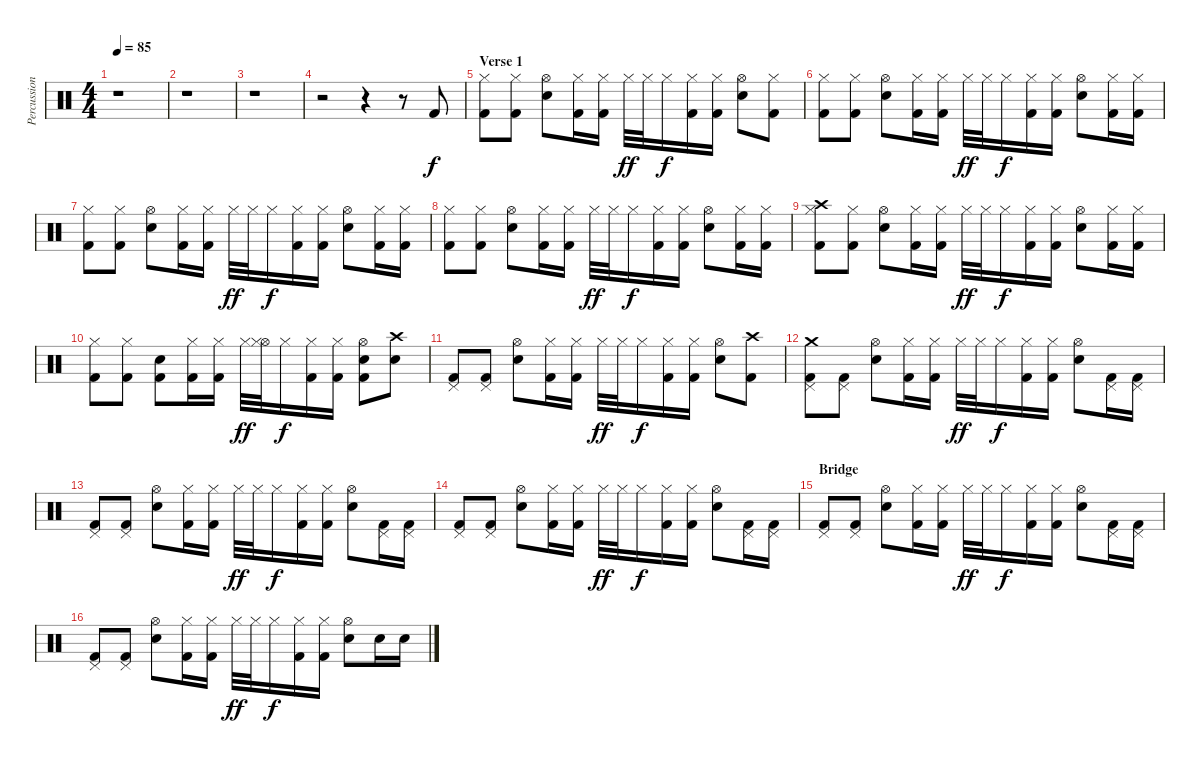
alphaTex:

\track ("Percussion" "Percussion") {instrument percussion}
\staff {score}
\articulation defaults
\ts (4 4)
\tempo 85
\clef neutral
\ks c
r.1{dy f} |
r.1 |
r.1 |
r.2 r.4 r.8 "Kick (hit) 2".8 |
\section ("" "Verse 1")
("Hi-Hat (closed)" "Kick (hit) 2").8 ("Hi-Hat (closed)" "Kick (hit) 2").8 ("Hi-Hat (open)" "Electric Snare (hit)").8 ("Hi-Hat (closed)" "Kick (hit) 2").16 ("Hi-Hat (closed)" "Kick (hit) 2").16 "Hi-Hat (closed)".32{dy ff} "Hi-Hat (closed)".32 "Hi-Hat (closed)".16{dy f} ("Hi-Hat (closed)" "Kick (hit) 2").16 ("Hi-Hat (closed)" "Kick (hit) 2").16 ("Hi-Hat (open)" "Electric Snare (hit)").8 ("Hi-Hat (closed)" "Kick (hit) 2").8 |
("Hi-Hat (closed)" "Kick (hit) 2").8 ("Hi-Hat (closed)" "Kick (hit) 2").8 ("Hi-Hat (open)" "Electric Snare (hit)").8 ("Hi-Hat (closed)" "Kick (hit) 2").16 ("Hi-Hat (closed)" "Kick (hit) 2").16 "Hi-Hat (closed)".32{dy ff} "Hi-Hat (closed)".32 "Hi-Hat (closed)".16{dy f} ("Hi-Hat (closed)" "Kick (hit) 2").16 ("Hi-Hat (closed)" "Kick (hit) 2").16 ("Hi-Hat (open)" "Electric Snare (hit)").8 ("Hi-Hat (closed)" "Kick (hit) 2").16 ("Hi-Hat (closed)" "Kick (hit) 2").16 |
("Hi-Hat (closed)" "Kick (hit) 2").8 ("Hi-Hat (closed)" "Kick (hit) 2").8 ("Hi-Hat (open)" "Electric Snare (hit)").8 ("Hi-Hat (closed)" "Kick (hit) 2").16 ("Hi-Hat (closed)" "Kick (hit) 2").16 "Hi-Hat (closed)".32{dy ff} "Hi-Hat (closed)".32 "Hi-Hat (closed)".16{dy f} ("Hi-Hat (closed)" "Kick (hit) 2").16 ("Hi-Hat (closed)" "Kick (hit) 2").16 ("Hi-Hat (open)" "Electric Snare (hit)").8 ("Hi-Hat (closed)" "Kick (hit) 2").16 ("Hi-Hat (closed)" "Kick (hit) 2").16 |
("Hi-Hat (closed)" "Kick (hit) 2").8 ("Hi-Hat (closed)" "Kick (hit) 2").8 ("Hi-Hat (open)" "Electric Snare (hit)").8 ("Hi-Hat (closed)" "Kick (hit) 2").16 ("Hi-Hat (closed)" "Kick (hit) 2").16 "Hi-Hat (closed)".32{dy ff} "Hi-Hat (closed)".32 "Hi-Hat (closed)".16{dy f} ("Hi-Hat (closed)" "Kick (hit) 2").16 ("Hi-Hat (closed)" "Kick (hit) 2").16 ("Hi-Hat (open)" "Electric Snare (hit)").8 ("Hi-Hat (closed)" "Kick (hit) 2").16 ("Hi-Hat (closed)" "Kick (hit) 2").16 |
("Crash high (hit)" "Hi-Hat (closed)" "Kick (hit) 2").8 ("Hi-Hat (closed)" "Kick (hit) 2").8 ("Hi-Hat (open)" "Electric Snare (hit)").8 ("Hi-Hat (closed)" "Kick (hit) 2").16 ("Hi-Hat (closed)" "Kick (hit) 2").16 "Hi-Hat (closed)".32{dy ff} "Hi-Hat (closed)".32 "Hi-Hat (closed)".16{dy f} ("Hi-Hat (closed)" "Kick (hit) 2").16 ("Hi-Hat (closed)" "Kick (hit) 2").16 ("Hi-Hat (open)" "Electric Snare (hit)").8 ("Hi-Hat (closed)" "Kick (hit) 2").16 ("Hi-Hat (closed)" "Kick (hit) 2").16 |
("Hi-Hat (closed)" "Kick (hit) 2").8 ("Hi-Hat (closed)" "Kick (hit) 2").8 ("Electric Snare (hit)" "Kick (hit) 2").8 ("Hi-Hat (closed)" "Kick (hit) 2").16 ("Hi-Hat (closed)" "Kick (hit) 2").16 "Hi-Hat (closed)".32{dy ff} ("Hi-Hat (open)" "Hi-Hat (closed)").32 "Hi-Hat (closed)".16{dy f} ("Hi-Hat (closed)" "Kick (hit) 2").16 ("Hi-Hat (closed)" "Kick (hit) 2").16 ("Hi-Hat (open)" "Electric Snare (hit)" "Kick (hit) 2").8 ("Crash high (hit)" "Electric Snare (hit)").8 |
("Pedal Hi-Hat (hit)" "Kick (hit) 2").8 ("Pedal Hi-Hat (hit)" "Kick (hit) 2").8 ("Hi-Hat (open)" "Electric Snare (hit)").8 ("Hi-Hat (closed)" "Kick (hit) 2").16 ("Hi-Hat (closed)" "Kick (hit) 2").16 "Hi-Hat (closed)".32{dy ff} "Hi-Hat (closed)".32 "Hi-Hat (closed)".16{dy f} ("Hi-Hat (closed)" "Kick (hit) 2").16 ("Hi-Hat (closed)" "Kick (hit) 2").16 ("Hi-Hat (open)" "Electric Snare (hit)").8 ("Crash high (hit)" "Kick (hit) 2").8 |
("Crash medium (hit)" "Pedal Hi-Hat (hit)" "Kick (hit) 2").8 ("Pedal Hi-Hat (hit)" "Kick (hit) 2").8 ("Hi-Hat (open)" "Electric Snare (hit)").8 ("Hi-Hat (closed)" "Kick (hit) 2").16 ("Hi-Hat (closed)" "Kick (hit) 2").16 "Hi-Hat (closed)".32{dy ff} "Hi-Hat (closed)".32 "Hi-Hat (closed)".16{dy f} ("Hi-Hat (closed)" "Kick (hit) 2").16 ("Hi-Hat (closed)" "Kick (hit) 2").16 ("Hi-Hat (open)" "Electric Snare (hit)").8 ("Pedal Hi-Hat (hit)" "Kick (hit) 2").16 ("Pedal Hi-Hat (hit)" "Kick (hit) 2").16 |
("Pedal Hi-Hat (hit)" "Kick (hit) 2").8 ("Pedal Hi-Hat (hit)" "Kick (hit) 2").8 ("Hi-Hat (open)" "Electric Snare (hit)").8 ("Hi-Hat (closed)" "Kick (hit) 2").16 ("Hi-Hat (closed)" "Kick (hit) 2").16 "Hi-Hat (closed)".32{dy ff} "Hi-Hat (closed)".32 "Hi-Hat (closed)".16{dy f} ("Hi-Hat (closed)" "Kick (hit) 2").16 ("Hi-Hat (closed)" "Kick (hit) 2").16 ("Hi-Hat (open)" "Electric Snare (hit)").8 ("Pedal Hi-Hat (hit)" "Kick (hit) 2").16 ("Pedal Hi-Hat (hit)" "Kick (hit) 2").16 |
("Pedal Hi-Hat (hit)" "Kick (hit) 2").8 ("Pedal Hi-Hat (hit)" "Kick (hit) 2").8 ("Hi-Hat (open)" "Electric Snare (hit)").8 ("Hi-Hat (closed)" "Kick (hit) 2").16 ("Hi-Hat (closed)" "Kick (hit) 2").16 "Hi-Hat (closed)".32{dy ff} "Hi-Hat (closed)".32 "Hi-Hat (closed)".16{dy f} ("Hi-Hat (closed)" "Kick (hit) 2").16 ("Hi-Hat (closed)" "Kick (hit) 2").16 ("Hi-Hat (open)" "Electric Snare (hit)").8 ("Pedal Hi-Hat (hit)" "Kick (hit) 2").16 ("Pedal Hi-Hat (hit)" "Kick (hit) 2").16 |
\section ("" "Bridge")
("Pedal Hi-Hat (hit)" "Kick (hit) 2").8 ("Pedal Hi-Hat (hit)" "Kick (hit) 2").8 ("Hi-Hat (open)" "Electric Snare (hit)").8 ("Hi-Hat (closed)" "Kick (hit) 2").16 ("Hi-Hat (closed)" "Kick (hit) 2").16 "Hi-Hat (closed)".32{dy ff} "Hi-Hat (closed)".32 "Hi-Hat (closed)".16{dy f} ("Hi-Hat (closed)" "Kick (hit) 2").16 ("Hi-Hat (closed)" "Kick (hit) 2").16 ("Hi-Hat (open)" "Electric Snare (hit)").8 ("Pedal Hi-Hat (hit)" "Kick (hit) 2").16 ("Pedal Hi-Hat (hit)" "Kick (hit) 2").16 |
("Pedal Hi-Hat (hit)" "Kick (hit) 2").8 ("Pedal Hi-Hat (hit)" "Kick (hit) 2").8 ("Hi-Hat (open)" "Electric Snare (hit)").8 ("Hi-Hat (closed)" "Kick (hit) 2").16 ("Hi-Hat (closed)" "Kick (hit) 2").16 "Hi-Hat (closed)".32{dy ff} "Hi-Hat (closed)".32 "Hi-Hat (closed)".16{dy f} ("Hi-Hat (closed)" "Kick (hit) 2").16 ("Hi-Hat (closed)" "Kick (hit) 2").16 ("Hi-Hat (open)" "Electric Snare (hit)").8 "Electric Snare (hit)".16 "Electric Snare (hit)".16
